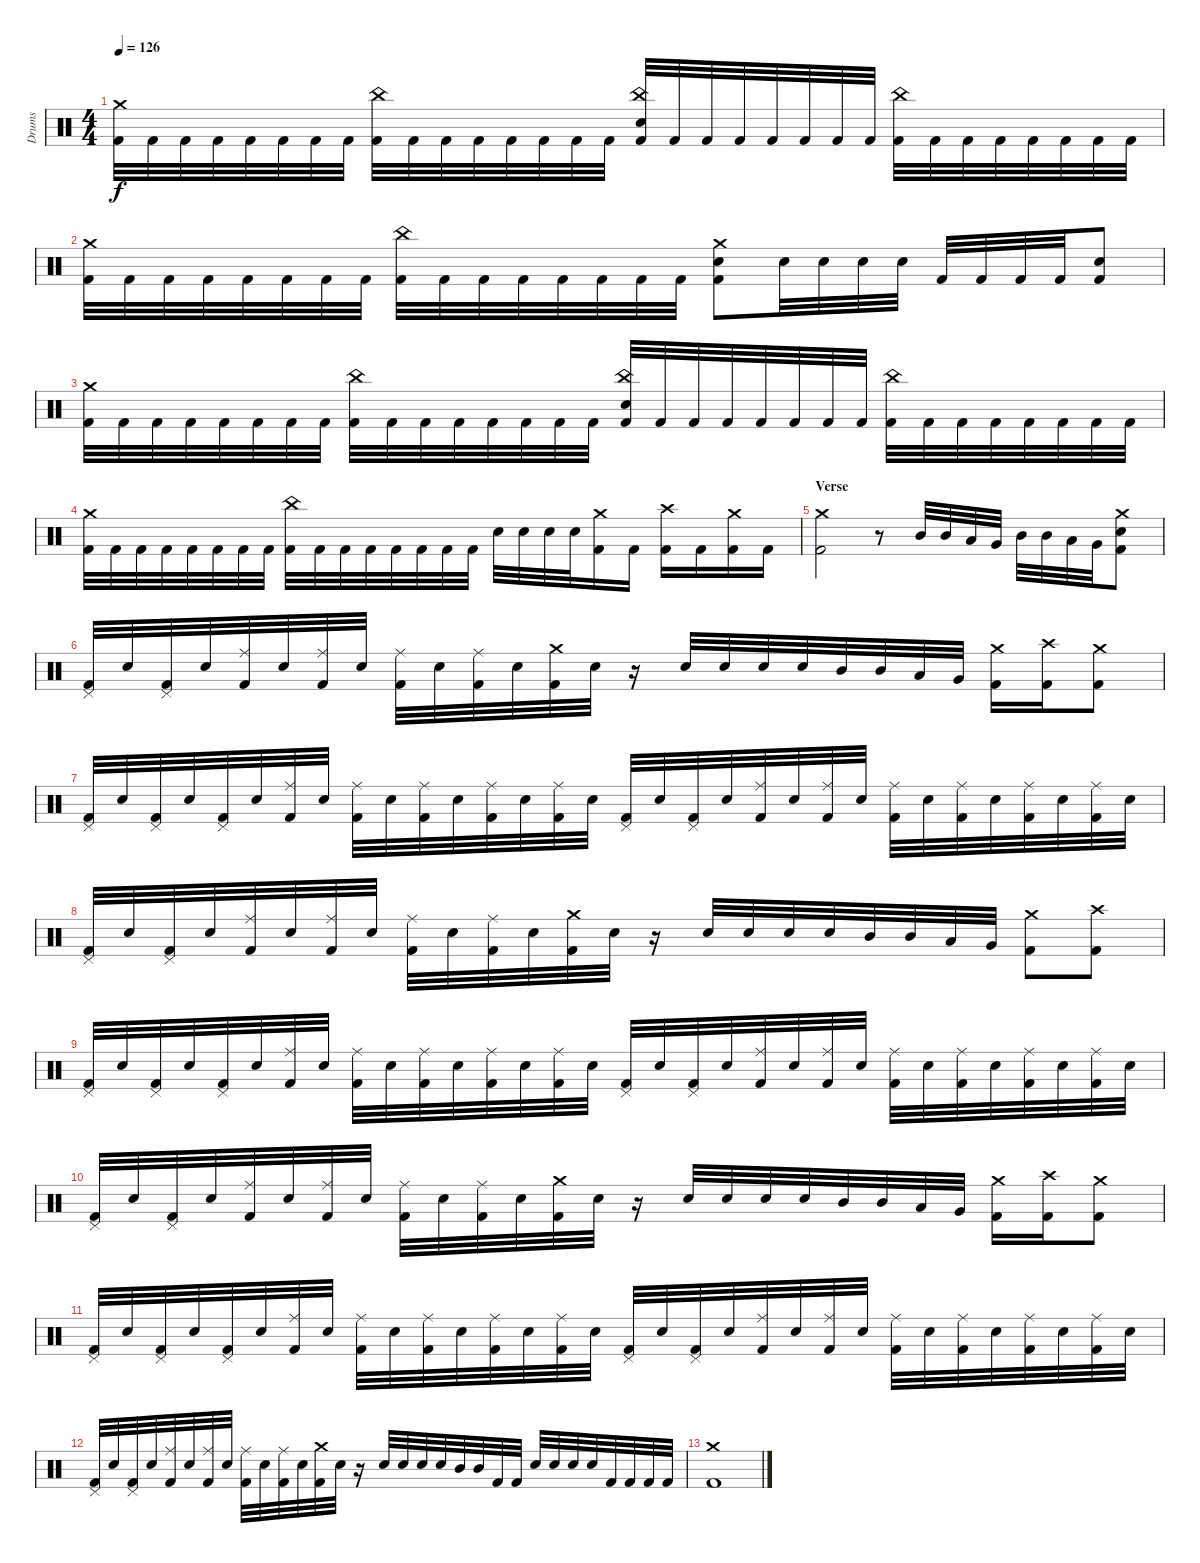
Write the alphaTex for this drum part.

\track ("Drums" "Drums") {instrument percussion}
\staff {score}
\articulation defaults
\ts (4 4)
\tempo 126
\clef neutral
\ks c
("Crash medium (hit)" "Kick (hit) 2").32{dy f} "Kick (hit) 2".32 "Kick (hit) 2".32 "Kick (hit) 2".32 "Kick (hit) 2".32 "Kick (hit) 2".32 "Kick (hit) 2".32 "Kick (hit) 2".32 ("China (hit)" "Kick (hit) 2").32 "Kick (hit) 2".32 "Kick (hit) 2".32 "Kick (hit) 2".32 "Kick (hit) 2".32 "Kick (hit) 2".32 "Kick (hit) 2".32 "Kick (hit) 2".32 ("China (hit)" "Electric Snare (hit)" "Kick (hit) 2").32 "Kick (hit) 2".32 "Kick (hit) 2".32 "Kick (hit) 2".32 "Kick (hit) 2".32 "Kick (hit) 2".32 "Kick (hit) 2".32 "Kick (hit) 2".32 ("China (hit)" "Kick (hit) 2").32 "Kick (hit) 2".32 "Kick (hit) 2".32 "Kick (hit) 2".32 "Kick (hit) 2".32 "Kick (hit) 2".32 "Kick (hit) 2".32 "Kick (hit) 2".32 |
("Crash medium (hit)" "Kick (hit) 2").32 "Kick (hit) 2".32 "Kick (hit) 2".32 "Kick (hit) 2".32 "Kick (hit) 2".32 "Kick (hit) 2".32 "Kick (hit) 2".32 "Kick (hit) 2".32 ("China (hit)" "Kick (hit) 2").32 "Kick (hit) 2".32 "Kick (hit) 2".32 "Kick (hit) 2".32 "Kick (hit) 2".32 "Kick (hit) 2".32 "Kick (hit) 2".32 "Kick (hit) 2".32 ("Crash medium (hit)" "Electric Snare (hit)" "Kick (hit) 2").8 "Electric Snare (hit)".32 "Electric Snare (hit)".32 "Electric Snare (hit)".32 "Electric Snare (hit)".32 "Kick (hit) 2".32 "Kick (hit) 2".32 "Kick (hit) 2".32 "Kick (hit) 2".32 ("Electric Snare (hit)" "Kick (hit) 2").8 |
("Crash medium (hit)" "Kick (hit) 2").32 "Kick (hit) 2".32 "Kick (hit) 2".32 "Kick (hit) 2".32 "Kick (hit) 2".32 "Kick (hit) 2".32 "Kick (hit) 2".32 "Kick (hit) 2".32 ("China (hit)" "Kick (hit) 2").32 "Kick (hit) 2".32 "Kick (hit) 2".32 "Kick (hit) 2".32 "Kick (hit) 2".32 "Kick (hit) 2".32 "Kick (hit) 2".32 "Kick (hit) 2".32 ("China (hit)" "Electric Snare (hit)" "Kick (hit) 2").32 "Kick (hit) 2".32 "Kick (hit) 2".32 "Kick (hit) 2".32 "Kick (hit) 2".32 "Kick (hit) 2".32 "Kick (hit) 2".32 "Kick (hit) 2".32 ("China (hit)" "Kick (hit) 2").32 "Kick (hit) 2".32 "Kick (hit) 2".32 "Kick (hit) 2".32 "Kick (hit) 2".32 "Kick (hit) 2".32 "Kick (hit) 2".32 "Kick (hit) 2".32 |
("Crash medium (hit)" "Kick (hit) 2").32 "Kick (hit) 2".32 "Kick (hit) 2".32 "Kick (hit) 2".32 "Kick (hit) 2".32 "Kick (hit) 2".32 "Kick (hit) 2".32 "Kick (hit) 2".32 ("China (hit)" "Kick (hit) 2").32 "Kick (hit) 2".32 "Kick (hit) 2".32 "Kick (hit) 2".32 "Kick (hit) 2".32 "Kick (hit) 2".32 "Kick (hit) 2".32 "Kick (hit) 2".32 "Electric Snare (hit)".32 "Electric Snare (hit)".32 "Electric Snare (hit)".32 "Electric Snare (hit)".32 ("Crash medium (hit)" "Kick (hit) 2").16 "Kick (hit) 2".16 ("Crash high (hit)" "Kick (hit) 2").16 "Kick (hit) 2".16 ("Crash medium (hit)" "Kick (hit) 2").16 "Kick (hit) 2".16 |
\section ("" "Verse")
("Crash medium (hit)" "Kick (hit) 2").2 r.8 "Mid Tom (hit)".32 "Mid Tom (hit)".32 "Low Tom (hit)".32 "Very Low Tom (hit)".32 "Mid Tom (hit)".32 "Mid Tom (hit)".32 "Low Tom (hit)".32 "Very Low Tom (hit)".32 ("Crash medium (hit)" "Electric Snare (hit)" "Kick (hit) 2").8 |
("Pedal Hi-Hat (hit)" "Kick (hit) 2").32 "Electric Snare (hit)".32 ("Pedal Hi-Hat (hit)" "Kick (hit) 2").32 "Electric Snare (hit)".32 ("Ride (middle)" "Kick (hit) 2").32 "Electric Snare (hit)".32 ("Ride (middle)" "Kick (hit) 2").32 "Electric Snare (hit)".32 ("Ride (middle)" "Kick (hit) 2").32 "Electric Snare (hit)".32 ("Ride (middle)" "Kick (hit) 2").32 "Electric Snare (hit)".32 ("Crash medium (hit)" "Kick (hit) 2").32 "Electric Snare (hit)".32 r.16 "Electric Snare (hit)".32 "Electric Snare (hit)".32 "Electric Snare (hit)".32 "Electric Snare (hit)".32 "Mid Tom (hit)".32 "Mid Tom (hit)".32 "Low Tom (hit)".32 "Very Low Tom (hit)".32 ("Crash medium (hit)" "Kick (hit) 2").16 ("Crash high (hit)" "Kick (hit) 2").16 ("Crash medium (hit)" "Kick (hit) 2").8 |
("Pedal Hi-Hat (hit)" "Kick (hit) 2").32 "Electric Snare (hit)".32 ("Pedal Hi-Hat (hit)" "Kick (hit) 2").32 "Electric Snare (hit)".32 ("Pedal Hi-Hat (hit)" "Kick (hit) 2").32 "Electric Snare (hit)".32 ("Ride (middle)" "Kick (hit) 2").32 "Electric Snare (hit)".32 ("Ride (middle)" "Kick (hit) 2").32 "Electric Snare (hit)".32 ("Ride (middle)" "Kick (hit) 2").32 "Electric Snare (hit)".32 ("Ride (middle)" "Kick (hit) 2").32 "Electric Snare (hit)".32 ("Ride (middle)" "Kick (hit) 2").32 "Electric Snare (hit)".32 ("Pedal Hi-Hat (hit)" "Kick (hit) 2").32 "Electric Snare (hit)".32 ("Pedal Hi-Hat (hit)" "Kick (hit) 2").32 "Electric Snare (hit)".32 ("Ride (middle)" "Kick (hit) 2").32 "Electric Snare (hit)".32 ("Ride (middle)" "Kick (hit) 2").32 "Electric Snare (hit)".32 ("Ride (middle)" "Kick (hit) 2").32 "Electric Snare (hit)".32 ("Ride (middle)" "Kick (hit) 2").32 "Electric Snare (hit)".32 ("Ride (middle)" "Kick (hit) 2").32 "Electric Snare (hit)".32 ("Ride (middle)" "Kick (hit) 2").32 "Electric Snare (hit)".32 |
("Pedal Hi-Hat (hit)" "Kick (hit) 2").32 "Electric Snare (hit)".32 ("Pedal Hi-Hat (hit)" "Kick (hit) 2").32 "Electric Snare (hit)".32 ("Ride (middle)" "Kick (hit) 2").32 "Electric Snare (hit)".32 ("Ride (middle)" "Kick (hit) 2").32 "Electric Snare (hit)".32 ("Ride (middle)" "Kick (hit) 2").32 "Electric Snare (hit)".32 ("Ride (middle)" "Kick (hit) 2").32 "Electric Snare (hit)".32 ("Crash medium (hit)" "Kick (hit) 2").32 "Electric Snare (hit)".32 r.16 "Electric Snare (hit)".32 "Electric Snare (hit)".32 "Electric Snare (hit)".32 "Electric Snare (hit)".32 "Mid Tom (hit)".32 "Mid Tom (hit)".32 "Low Tom (hit)".32 "Very Low Tom (hit)".32 ("Crash medium (hit)" "Kick (hit) 2").8 ("Crash high (hit)" "Kick (hit) 2").8 |
("Pedal Hi-Hat (hit)" "Kick (hit) 2").32 "Electric Snare (hit)".32 ("Pedal Hi-Hat (hit)" "Kick (hit) 2").32 "Electric Snare (hit)".32 ("Pedal Hi-Hat (hit)" "Kick (hit) 2").32 "Electric Snare (hit)".32 ("Ride (middle)" "Kick (hit) 2").32 "Electric Snare (hit)".32 ("Ride (middle)" "Kick (hit) 2").32 "Electric Snare (hit)".32 ("Ride (middle)" "Kick (hit) 2").32 "Electric Snare (hit)".32 ("Ride (middle)" "Kick (hit) 2").32 "Electric Snare (hit)".32 ("Ride (middle)" "Kick (hit) 2").32 "Electric Snare (hit)".32 ("Pedal Hi-Hat (hit)" "Kick (hit) 2").32 "Electric Snare (hit)".32 ("Pedal Hi-Hat (hit)" "Kick (hit) 2").32 "Electric Snare (hit)".32 ("Ride (middle)" "Kick (hit) 2").32 "Electric Snare (hit)".32 ("Ride (middle)" "Kick (hit) 2").32 "Electric Snare (hit)".32 ("Ride (middle)" "Kick (hit) 2").32 "Electric Snare (hit)".32 ("Ride (middle)" "Kick (hit) 2").32 "Electric Snare (hit)".32 ("Ride (middle)" "Kick (hit) 2").32 "Electric Snare (hit)".32 ("Ride (middle)" "Kick (hit) 2").32 "Electric Snare (hit)".32 |
("Pedal Hi-Hat (hit)" "Kick (hit) 2").32 "Electric Snare (hit)".32 ("Pedal Hi-Hat (hit)" "Kick (hit) 2").32 "Electric Snare (hit)".32 ("Ride (middle)" "Kick (hit) 2").32 "Electric Snare (hit)".32 ("Ride (middle)" "Kick (hit) 2").32 "Electric Snare (hit)".32 ("Ride (middle)" "Kick (hit) 2").32 "Electric Snare (hit)".32 ("Ride (middle)" "Kick (hit) 2").32 "Electric Snare (hit)".32 ("Crash medium (hit)" "Kick (hit) 2").32 "Electric Snare (hit)".32 r.16 "Electric Snare (hit)".32 "Electric Snare (hit)".32 "Electric Snare (hit)".32 "Electric Snare (hit)".32 "Mid Tom (hit)".32 "Mid Tom (hit)".32 "Low Tom (hit)".32 "Very Low Tom (hit)".32 ("Crash medium (hit)" "Kick (hit) 2").16 ("Crash high (hit)" "Kick (hit) 2").16 ("Crash medium (hit)" "Kick (hit) 2").8 |
("Pedal Hi-Hat (hit)" "Kick (hit) 2").32 "Electric Snare (hit)".32 ("Pedal Hi-Hat (hit)" "Kick (hit) 2").32 "Electric Snare (hit)".32 ("Pedal Hi-Hat (hit)" "Kick (hit) 2").32 "Electric Snare (hit)".32 ("Ride (middle)" "Kick (hit) 2").32 "Electric Snare (hit)".32 ("Ride (middle)" "Kick (hit) 2").32 "Electric Snare (hit)".32 ("Ride (middle)" "Kick (hit) 2").32 "Electric Snare (hit)".32 ("Ride (middle)" "Kick (hit) 2").32 "Electric Snare (hit)".32 ("Ride (middle)" "Kick (hit) 2").32 "Electric Snare (hit)".32 ("Pedal Hi-Hat (hit)" "Kick (hit) 2").32 "Electric Snare (hit)".32 ("Pedal Hi-Hat (hit)" "Kick (hit) 2").32 "Electric Snare (hit)".32 ("Ride (middle)" "Kick (hit) 2").32 "Electric Snare (hit)".32 ("Ride (middle)" "Kick (hit) 2").32 "Electric Snare (hit)".32 ("Ride (middle)" "Kick (hit) 2").32 "Electric Snare (hit)".32 ("Ride (middle)" "Kick (hit) 2").32 "Electric Snare (hit)".32 ("Ride (middle)" "Kick (hit) 2").32 "Electric Snare (hit)".32 ("Ride (middle)" "Kick (hit) 2").32 "Electric Snare (hit)".32 |
("Pedal Hi-Hat (hit)" "Kick (hit) 2").32 "Electric Snare (hit)".32 ("Pedal Hi-Hat (hit)" "Kick (hit) 2").32 "Electric Snare (hit)".32 ("Ride (middle)" "Kick (hit) 2").32 "Electric Snare (hit)".32 ("Ride (middle)" "Kick (hit) 2").32 "Electric Snare (hit)".32 ("Ride (middle)" "Kick (hit) 2").32 "Electric Snare (hit)".32 ("Ride (middle)" "Kick (hit) 2").32 "Electric Snare (hit)".32 ("Crash medium (hit)" "Kick (hit) 2").32 "Electric Snare (hit)".32 r.16 "Electric Snare (hit)".32 "Electric Snare (hit)".32 "Electric Snare (hit)".32 "Electric Snare (hit)".32 "Mid Tom (hit)".32 "Mid Tom (hit)".32 "Kick (hit) 2".32 "Kick (hit) 2".32 "Electric Snare (hit)".32 "Electric Snare (hit)".32 "Electric Snare (hit)".32 "Electric Snare (hit)".32 "Kick (hit) 2".32 "Kick (hit) 2".32 "Kick (hit) 2".32 "Kick (hit) 2".32 |
("Crash medium (hit)" "Kick (hit) 2").1
